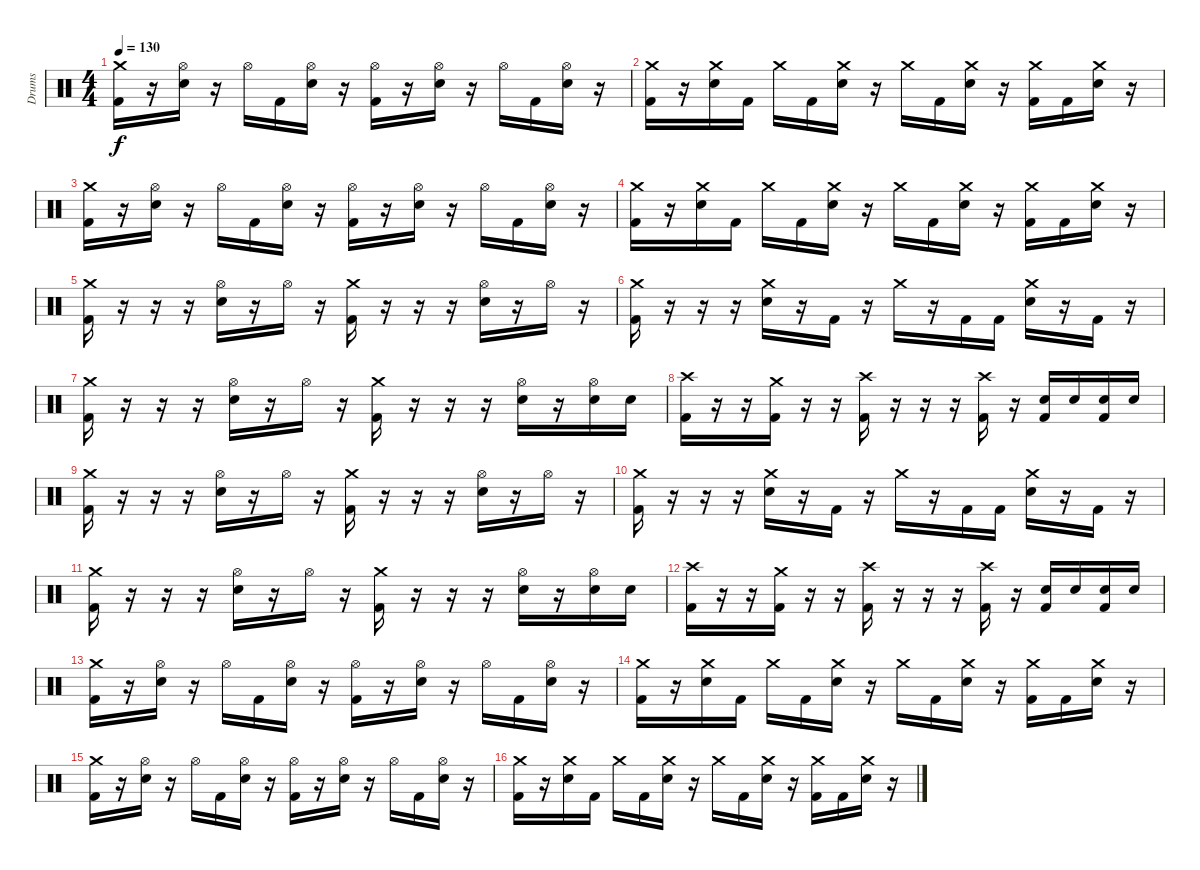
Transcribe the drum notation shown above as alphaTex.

\track ("Drums" "Drums") {instrument percussion}
\staff {score}
\articulation defaults
\ts (4 4)
\tempo 130
\clef neutral
\ks c
("Crash medium (hit)" "Kick (hit) 2").16{dy f} r.16 ("Hi-Hat (open)" "Electric Snare (hit)").16 r.16 "Hi-Hat (open)".16 "Kick (hit) 2".16 ("Hi-Hat (open)" "Electric Snare (hit)").16 r.16 ("Hi-Hat (open)" "Kick (hit) 2").16 r.16 ("Hi-Hat (open)" "Electric Snare (hit)").16 r.16 "Hi-Hat (open)".16 "Kick (hit) 2".16 ("Hi-Hat (open)" "Electric Snare (hit)").16 r.16 |
("Crash medium (hit)" "Kick (hit) 2").16 r.16 ("Crash medium (hit)" "Electric Snare (hit)").16 "Kick (hit) 2".16 "Crash medium (hit)".16 "Kick (hit) 2".16 ("Crash medium (hit)" "Electric Snare (hit)").16 r.16 "Crash medium (hit)".16 "Kick (hit) 2".16 ("Crash medium (hit)" "Electric Snare (hit)").16 r.16 ("Crash medium (hit)" "Kick (hit) 2").16 "Kick (hit) 2".16 ("Crash medium (hit)" "Electric Snare (hit)").16 r.16 |
("Crash medium (hit)" "Kick (hit) 2").16 r.16 ("Hi-Hat (open)" "Electric Snare (hit)").16 r.16 "Hi-Hat (open)".16 "Kick (hit) 2".16 ("Hi-Hat (open)" "Electric Snare (hit)").16 r.16 ("Hi-Hat (open)" "Kick (hit) 2").16 r.16 ("Hi-Hat (open)" "Electric Snare (hit)").16 r.16 "Hi-Hat (open)".16 "Kick (hit) 2".16 ("Hi-Hat (open)" "Electric Snare (hit)").16 r.16 |
("Crash medium (hit)" "Kick (hit) 2").16 r.16 ("Crash medium (hit)" "Electric Snare (hit)").16 "Kick (hit) 2".16 "Crash medium (hit)".16 "Kick (hit) 2".16 ("Crash medium (hit)" "Electric Snare (hit)").16 r.16 "Crash medium (hit)".16 "Kick (hit) 2".16 ("Crash medium (hit)" "Electric Snare (hit)").16 r.16 ("Crash medium (hit)" "Kick (hit) 2").16 "Kick (hit) 2".16 ("Crash medium (hit)" "Electric Snare (hit)").16 r.16 |
("Crash medium (hit)" "Kick (hit) 2").16 r.16 r.16 r.16 ("Hi-Hat (open)" "Electric Snare (hit)").16 r.16 "Hi-Hat (open)".16 r.16 ("Crash medium (hit)" "Kick (hit) 2").16 r.16 r.16 r.16 ("Hi-Hat (open)" "Electric Snare (hit)").16 r.16 "Hi-Hat (open)".16 r.16 |
("Crash medium (hit)" "Kick (hit) 2").16 r.16 r.16 r.16 ("Crash medium (hit)" "Electric Snare (hit)").16 r.16 "Kick (hit) 2".16 r.16 "Crash medium (hit)".16 r.16 "Kick (hit) 2".16 "Kick (hit) 2".16 ("Crash medium (hit)" "Electric Snare (hit)").16 r.16 "Kick (hit) 2".16 r.16 |
("Crash medium (hit)" "Kick (hit) 2").16 r.16 r.16 r.16 ("Hi-Hat (open)" "Electric Snare (hit)").16 r.16 "Hi-Hat (open)".16 r.16 ("Crash medium (hit)" "Kick (hit) 2").16 r.16 r.16 r.16 ("Hi-Hat (open)" "Electric Snare (hit)").16 r.16 ("Hi-Hat (open)" "Electric Snare (hit)").16 "Electric Snare (hit)".16 |
("Crash high (hit)" "Kick (hit) 2").16 r.16 r.16 ("Crash medium (hit)" "Kick (hit) 2").16 r.16 r.16 ("Crash high (hit)" "Kick (hit) 2").16 r.16 r.16 r.16 ("Crash high (hit)" "Kick (hit) 2").16 r.16 ("Electric Snare (hit)" "Kick (hit) 2").16 "Electric Snare (hit)".16 ("Electric Snare (hit)" "Kick (hit) 2").16 "Electric Snare (hit)".16 |
("Crash medium (hit)" "Kick (hit) 2").16 r.16 r.16 r.16 ("Hi-Hat (open)" "Electric Snare (hit)").16 r.16 "Hi-Hat (open)".16 r.16 ("Crash medium (hit)" "Kick (hit) 2").16 r.16 r.16 r.16 ("Hi-Hat (open)" "Electric Snare (hit)").16 r.16 "Hi-Hat (open)".16 r.16 |
("Crash medium (hit)" "Kick (hit) 2").16 r.16 r.16 r.16 ("Crash medium (hit)" "Electric Snare (hit)").16 r.16 "Kick (hit) 2".16 r.16 "Crash medium (hit)".16 r.16 "Kick (hit) 2".16 "Kick (hit) 2".16 ("Crash medium (hit)" "Electric Snare (hit)").16 r.16 "Kick (hit) 2".16 r.16 |
("Crash medium (hit)" "Kick (hit) 2").16 r.16 r.16 r.16 ("Hi-Hat (open)" "Electric Snare (hit)").16 r.16 "Hi-Hat (open)".16 r.16 ("Crash medium (hit)" "Kick (hit) 2").16 r.16 r.16 r.16 ("Hi-Hat (open)" "Electric Snare (hit)").16 r.16 ("Hi-Hat (open)" "Electric Snare (hit)").16 "Electric Snare (hit)".16 |
("Crash high (hit)" "Kick (hit) 2").16 r.16 r.16 ("Crash medium (hit)" "Kick (hit) 2").16 r.16 r.16 ("Crash high (hit)" "Kick (hit) 2").16 r.16 r.16 r.16 ("Crash high (hit)" "Kick (hit) 2").16 r.16 ("Electric Snare (hit)" "Kick (hit) 2").16 "Electric Snare (hit)".16 ("Electric Snare (hit)" "Kick (hit) 2").16 "Electric Snare (hit)".16 |
("Crash medium (hit)" "Kick (hit) 2").16 r.16 ("Hi-Hat (open)" "Electric Snare (hit)").16 r.16 "Hi-Hat (open)".16 "Kick (hit) 2".16 ("Hi-Hat (open)" "Electric Snare (hit)").16 r.16 ("Hi-Hat (open)" "Kick (hit) 2").16 r.16 ("Hi-Hat (open)" "Electric Snare (hit)").16 r.16 "Hi-Hat (open)".16 "Kick (hit) 2".16 ("Hi-Hat (open)" "Electric Snare (hit)").16 r.16 |
("Crash medium (hit)" "Kick (hit) 2").16 r.16 ("Crash medium (hit)" "Electric Snare (hit)").16 "Kick (hit) 2".16 "Crash medium (hit)".16 "Kick (hit) 2".16 ("Crash medium (hit)" "Electric Snare (hit)").16 r.16 "Crash medium (hit)".16 "Kick (hit) 2".16 ("Crash medium (hit)" "Electric Snare (hit)").16 r.16 ("Crash medium (hit)" "Kick (hit) 2").16 "Kick (hit) 2".16 ("Crash medium (hit)" "Electric Snare (hit)").16 r.16 |
("Crash medium (hit)" "Kick (hit) 2").16 r.16 ("Hi-Hat (open)" "Electric Snare (hit)").16 r.16 "Hi-Hat (open)".16 "Kick (hit) 2".16 ("Hi-Hat (open)" "Electric Snare (hit)").16 r.16 ("Hi-Hat (open)" "Kick (hit) 2").16 r.16 ("Hi-Hat (open)" "Electric Snare (hit)").16 r.16 "Hi-Hat (open)".16 "Kick (hit) 2".16 ("Hi-Hat (open)" "Electric Snare (hit)").16 r.16 |
("Crash medium (hit)" "Kick (hit) 2").16 r.16 ("Crash medium (hit)" "Electric Snare (hit)").16 "Kick (hit) 2".16 "Crash medium (hit)".16 "Kick (hit) 2".16 ("Crash medium (hit)" "Electric Snare (hit)").16 r.16 "Crash medium (hit)".16 "Kick (hit) 2".16 ("Crash medium (hit)" "Electric Snare (hit)").16 r.16 ("Crash medium (hit)" "Kick (hit) 2").16 "Kick (hit) 2".16 ("Crash medium (hit)" "Electric Snare (hit)").16 r.16
